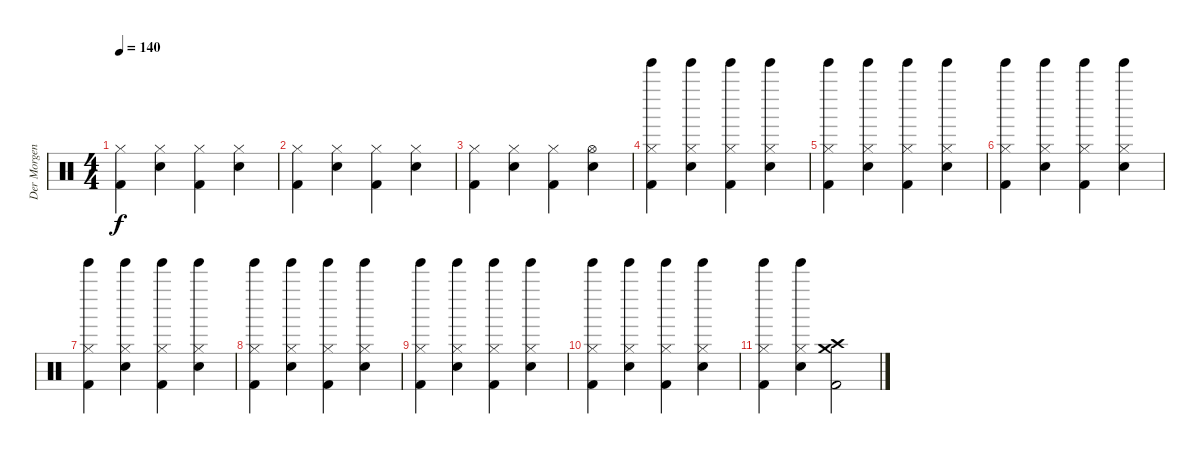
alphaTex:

\track ("Der Morgenstern" "Der Morgen") {instrument percussion}
\staff {score}
\articulation defaults
\ts (4 4)
\tempo 140
\clef neutral
\ks c
("Hi-Hat (closed)" "Kick (hit) 2").4{dy f} ("Hi-Hat (closed)" "Snare (hit) 2").4 ("Hi-Hat (closed)" "Kick (hit) 2").4 ("Hi-Hat (closed)" "Snare (hit) 2").4 |
("Hi-Hat (closed)" "Kick (hit) 2").4 ("Hi-Hat (closed)" "Snare (hit) 2").4 ("Hi-Hat (closed)" "Kick (hit) 2").4 ("Hi-Hat (closed)" "Snare (hit) 2").4 |
("Hi-Hat (closed)" "Kick (hit) 2").4 ("Hi-Hat (closed)" "Snare (hit) 2").4 ("Hi-Hat (closed)" "Kick (hit) 2").4 ("Hi-Hat (open)" "Snare (hit) 2").4 |
("Hi-Hat (closed)" "Tinkle Bell (hit)" "Kick (hit) 2").4 ("Hi-Hat (closed)" "Tinkle Bell (hit)" "Snare (hit) 2").4 ("Hi-Hat (closed)" "Tinkle Bell (hit)" "Kick (hit) 2").4 ("Hi-Hat (closed)" "Tinkle Bell (hit)" "Snare (hit) 2").4 |
("Hi-Hat (closed)" "Tinkle Bell (hit)" "Kick (hit) 2").4 ("Hi-Hat (closed)" "Tinkle Bell (hit)" "Snare (hit) 2").4 ("Hi-Hat (closed)" "Tinkle Bell (hit)" "Kick (hit) 2").4 ("Hi-Hat (closed)" "Tinkle Bell (hit)" "Snare (hit) 2").4 |
("Hi-Hat (closed)" "Tinkle Bell (hit)" "Kick (hit) 2").4 ("Hi-Hat (closed)" "Tinkle Bell (hit)" "Snare (hit) 2").4 ("Hi-Hat (closed)" "Tinkle Bell (hit)" "Kick (hit) 2").4 ("Hi-Hat (closed)" "Tinkle Bell (hit)" "Snare (hit) 2").4 |
("Hi-Hat (closed)" "Tinkle Bell (hit)" "Kick (hit) 2").4 ("Hi-Hat (closed)" "Tinkle Bell (hit)" "Snare (hit) 2").4 ("Hi-Hat (closed)" "Tinkle Bell (hit)" "Kick (hit) 2").4 ("Hi-Hat (closed)" "Tinkle Bell (hit)" "Snare (hit) 2").4 |
("Hi-Hat (closed)" "Tinkle Bell (hit)" "Kick (hit) 2").4 ("Hi-Hat (closed)" "Tinkle Bell (hit)" "Snare (hit) 2").4 ("Hi-Hat (closed)" "Tinkle Bell (hit)" "Kick (hit) 2").4 ("Hi-Hat (closed)" "Tinkle Bell (hit)" "Snare (hit) 2").4 |
("Hi-Hat (closed)" "Tinkle Bell (hit)" "Kick (hit) 2").4 ("Hi-Hat (closed)" "Tinkle Bell (hit)" "Snare (hit) 2").4 ("Hi-Hat (closed)" "Tinkle Bell (hit)" "Kick (hit) 2").4 ("Hi-Hat (closed)" "Tinkle Bell (hit)" "Snare (hit) 2").4 |
("Hi-Hat (closed)" "Tinkle Bell (hit)" "Kick (hit) 2").4 ("Hi-Hat (closed)" "Tinkle Bell (hit)" "Snare (hit) 2").4 ("Hi-Hat (closed)" "Tinkle Bell (hit)" "Kick (hit) 2").4 ("Hi-Hat (closed)" "Tinkle Bell (hit)" "Snare (hit) 2").4 |
("Hi-Hat (closed)" "Tinkle Bell (hit)" "Kick (hit) 2").4 ("Hi-Hat (closed)" "Tinkle Bell (hit)" "Snare (hit) 2").4 ("Crash high (hit)" "Crash medium (hit)" "Kick (hit) 2").2
